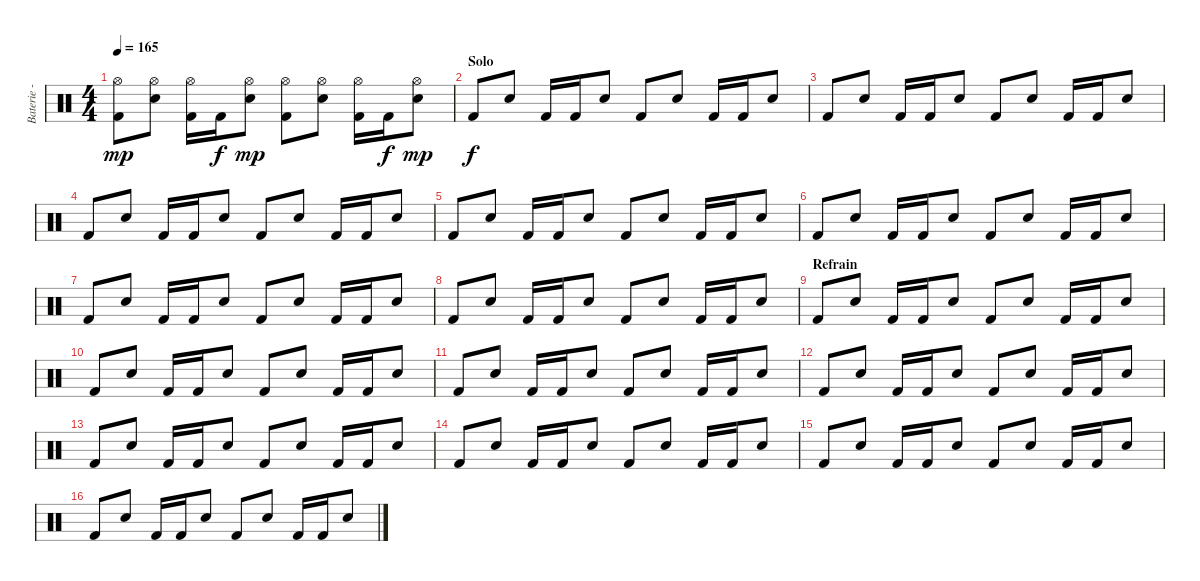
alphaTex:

\track ("Baterie - Guillaume" "Baterie - ") {instrument percussion}
\staff {score}
\articulation defaults
\ts (4 4)
\tempo 165
\clef neutral
\ks c
("Hi-Hat (open)" "Kick (hit) 2").8{dy mp} ("Hi-Hat (open)" "Electric Snare (hit)").8 ("Hi-Hat (open)" "Kick (hit) 2").16 "Kick (hit) 2".16{dy f} ("Hi-Hat (open)" "Electric Snare (hit)").8{dy mp} ("Hi-Hat (open)" "Kick (hit) 2").8 ("Hi-Hat (open)" "Electric Snare (hit)").8 ("Hi-Hat (open)" "Kick (hit) 2").16 "Kick (hit) 2".16{dy f} ("Hi-Hat (open)" "Electric Snare (hit)").8{dy mp} |
\section ("" "Solo")
"Kick (hit) 2".8{dy f} "Electric Snare (hit)".8 "Kick (hit) 2".16 "Kick (hit) 2".16 "Electric Snare (hit)".8 "Kick (hit) 2".8 "Electric Snare (hit)".8 "Kick (hit) 2".16 "Kick (hit) 2".16 "Electric Snare (hit)".8 |
"Kick (hit) 2".8 "Electric Snare (hit)".8 "Kick (hit) 2".16 "Kick (hit) 2".16 "Electric Snare (hit)".8 "Kick (hit) 2".8 "Electric Snare (hit)".8 "Kick (hit) 2".16 "Kick (hit) 2".16 "Electric Snare (hit)".8 |
"Kick (hit) 2".8 "Electric Snare (hit)".8 "Kick (hit) 2".16 "Kick (hit) 2".16 "Electric Snare (hit)".8 "Kick (hit) 2".8 "Electric Snare (hit)".8 "Kick (hit) 2".16 "Kick (hit) 2".16 "Electric Snare (hit)".8 |
"Kick (hit) 2".8 "Electric Snare (hit)".8 "Kick (hit) 2".16 "Kick (hit) 2".16 "Electric Snare (hit)".8 "Kick (hit) 2".8 "Electric Snare (hit)".8 "Kick (hit) 2".16 "Kick (hit) 2".16 "Electric Snare (hit)".8 |
"Kick (hit) 2".8 "Electric Snare (hit)".8 "Kick (hit) 2".16 "Kick (hit) 2".16 "Electric Snare (hit)".8 "Kick (hit) 2".8 "Electric Snare (hit)".8 "Kick (hit) 2".16 "Kick (hit) 2".16 "Electric Snare (hit)".8 |
"Kick (hit) 2".8 "Electric Snare (hit)".8 "Kick (hit) 2".16 "Kick (hit) 2".16 "Electric Snare (hit)".8 "Kick (hit) 2".8 "Electric Snare (hit)".8 "Kick (hit) 2".16 "Kick (hit) 2".16 "Electric Snare (hit)".8 |
"Kick (hit) 2".8 "Electric Snare (hit)".8 "Kick (hit) 2".16 "Kick (hit) 2".16 "Electric Snare (hit)".8 "Kick (hit) 2".8 "Electric Snare (hit)".8 "Kick (hit) 2".16 "Kick (hit) 2".16 "Electric Snare (hit)".8 |
\section ("" "Refrain")
"Kick (hit) 2".8 "Electric Snare (hit)".8 "Kick (hit) 2".16 "Kick (hit) 2".16 "Electric Snare (hit)".8 "Kick (hit) 2".8 "Electric Snare (hit)".8 "Kick (hit) 2".16 "Kick (hit) 2".16 "Electric Snare (hit)".8 |
"Kick (hit) 2".8 "Electric Snare (hit)".8 "Kick (hit) 2".16 "Kick (hit) 2".16 "Electric Snare (hit)".8 "Kick (hit) 2".8 "Electric Snare (hit)".8 "Kick (hit) 2".16 "Kick (hit) 2".16 "Electric Snare (hit)".8 |
"Kick (hit) 2".8 "Electric Snare (hit)".8 "Kick (hit) 2".16 "Kick (hit) 2".16 "Electric Snare (hit)".8 "Kick (hit) 2".8 "Electric Snare (hit)".8 "Kick (hit) 2".16 "Kick (hit) 2".16 "Electric Snare (hit)".8 |
"Kick (hit) 2".8 "Electric Snare (hit)".8 "Kick (hit) 2".16 "Kick (hit) 2".16 "Electric Snare (hit)".8 "Kick (hit) 2".8 "Electric Snare (hit)".8 "Kick (hit) 2".16 "Kick (hit) 2".16 "Electric Snare (hit)".8 |
"Kick (hit) 2".8 "Electric Snare (hit)".8 "Kick (hit) 2".16 "Kick (hit) 2".16 "Electric Snare (hit)".8 "Kick (hit) 2".8 "Electric Snare (hit)".8 "Kick (hit) 2".16 "Kick (hit) 2".16 "Electric Snare (hit)".8 |
"Kick (hit) 2".8 "Electric Snare (hit)".8 "Kick (hit) 2".16 "Kick (hit) 2".16 "Electric Snare (hit)".8 "Kick (hit) 2".8 "Electric Snare (hit)".8 "Kick (hit) 2".16 "Kick (hit) 2".16 "Electric Snare (hit)".8 |
"Kick (hit) 2".8 "Electric Snare (hit)".8 "Kick (hit) 2".16 "Kick (hit) 2".16 "Electric Snare (hit)".8 "Kick (hit) 2".8 "Electric Snare (hit)".8 "Kick (hit) 2".16 "Kick (hit) 2".16 "Electric Snare (hit)".8 |
"Kick (hit) 2".8 "Electric Snare (hit)".8 "Kick (hit) 2".16 "Kick (hit) 2".16 "Electric Snare (hit)".8 "Kick (hit) 2".8 "Electric Snare (hit)".8 "Kick (hit) 2".16 "Kick (hit) 2".16 "Electric Snare (hit)".8
